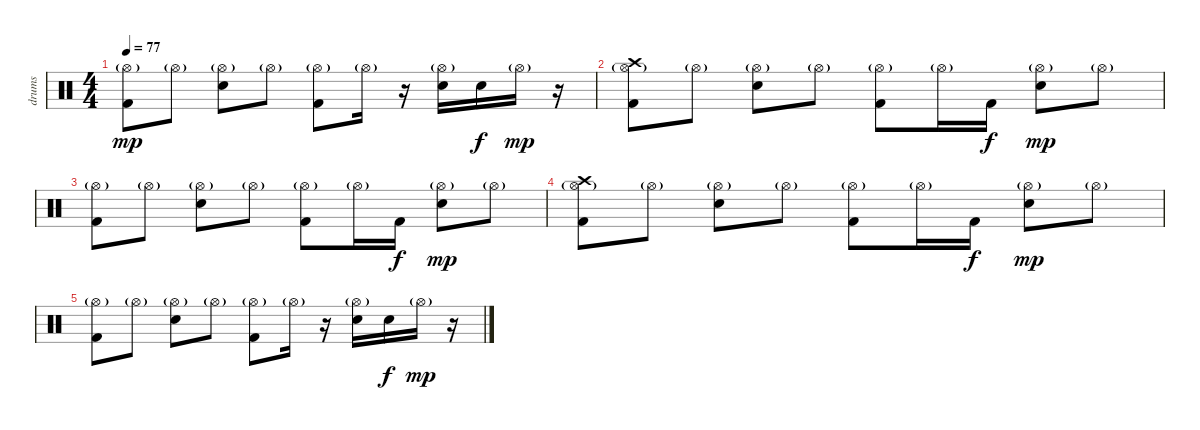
\track ("drums" "drums") {instrument percussion}
\staff {score}
\articulation defaults
\ts (4 4)
\tempo 77
\clef neutral
\ks c
("Kick (hit) 2" "Hi-Hat (open)"{g}).8{dy mp} "Hi-Hat (open)"{g}.8 ("Snare (hit) 2" "Hi-Hat (open)"{g}).8 "Hi-Hat (open)"{g}.8 ("Kick (hit) 2" "Hi-Hat (open)"{g}).8 "Hi-Hat (open)"{g}.16 r.16 ("Snare (hit) 2" "Hi-Hat (open)"{g}).16 "Snare (hit) 2".16{dy f} "Hi-Hat (open)"{g}.16{dy mp} r.16 |
("Kick (hit) 2" "Hi-Hat (open)"{g} "Crash high (hit)").8 "Hi-Hat (open)"{g}.8 ("Snare (hit) 2" "Hi-Hat (open)"{g}).8 "Hi-Hat (open)"{g}.8 ("Kick (hit) 2" "Hi-Hat (open)"{g}).8 "Hi-Hat (open)"{g}.16 "Kick (hit) 2".16{dy f} ("Snare (hit) 2" "Hi-Hat (open)"{g}).8{dy mp} "Hi-Hat (open)"{g}.8 |
("Kick (hit) 2" "Hi-Hat (open)"{g}).8 "Hi-Hat (open)"{g}.8 ("Snare (hit) 2" "Hi-Hat (open)"{g}).8 "Hi-Hat (open)"{g}.8 ("Kick (hit) 2" "Hi-Hat (open)"{g}).8 "Hi-Hat (open)"{g}.16 "Kick (hit) 2".16{dy f} ("Snare (hit) 2" "Hi-Hat (open)"{g}).8{dy mp} "Hi-Hat (open)"{g}.8 |
("Kick (hit) 2" "Hi-Hat (open)"{g} "Crash high (hit)").8 "Hi-Hat (open)"{g}.8 ("Snare (hit) 2" "Hi-Hat (open)"{g}).8 "Hi-Hat (open)"{g}.8 ("Kick (hit) 2" "Hi-Hat (open)"{g}).8 "Hi-Hat (open)"{g}.16 "Kick (hit) 2".16{dy f} ("Snare (hit) 2" "Hi-Hat (open)"{g}).8{dy mp} "Hi-Hat (open)"{g}.8 |
("Kick (hit) 2" "Hi-Hat (open)"{g}).8 "Hi-Hat (open)"{g}.8 ("Snare (hit) 2" "Hi-Hat (open)"{g}).8 "Hi-Hat (open)"{g}.8 ("Kick (hit) 2" "Hi-Hat (open)"{g}).8 "Hi-Hat (open)"{g}.16 r.16 ("Snare (hit) 2" "Hi-Hat (open)"{g}).16 "Snare (hit) 2".16{dy f} "Hi-Hat (open)"{g}.16{dy mp} r.16
